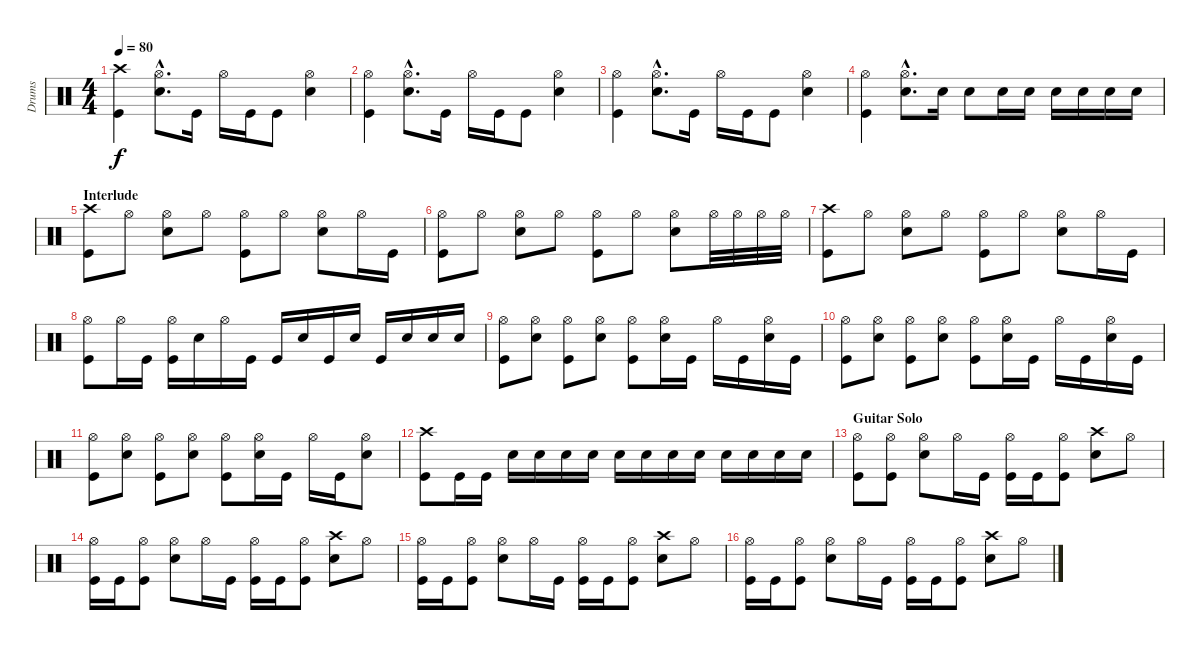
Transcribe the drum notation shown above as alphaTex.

\track ("Drums" "Drums") {instrument percussion}
\staff {score}
\articulation defaults
\ts (4 4)
\tempo 80
\clef neutral
\ks c
("Crash high (hit)" "Kick (hit)").4{dy f} ("Hi-Hat (open)"{hac} "Electric Snare (hit)"{hac}).8{d} "Kick (hit)".16 "Hi-Hat (open)".16 "Kick (hit)".16 "Kick (hit)".8 ("Hi-Hat (open)" "Electric Snare (hit)").4 |
("Hi-Hat (open)" "Kick (hit)").4 ("Hi-Hat (open)"{hac} "Electric Snare (hit)"{hac}).8{d} "Kick (hit)".16 "Hi-Hat (open)".16 "Kick (hit)".16 "Kick (hit)".8 ("Hi-Hat (open)" "Electric Snare (hit)").4 |
("Hi-Hat (open)" "Kick (hit)").4 ("Hi-Hat (open)"{hac} "Electric Snare (hit)"{hac}).8{d} "Kick (hit)".16 "Hi-Hat (open)".16 "Kick (hit)".16 "Kick (hit)".8 ("Hi-Hat (open)" "Electric Snare (hit)").4 |
("Hi-Hat (open)" "Kick (hit)").4 ("Hi-Hat (open)"{hac} "Electric Snare (hit)"{hac}).8{d} "Electric Snare (hit)".16 "Electric Snare (hit)".8 "Electric Snare (hit)".16 "Electric Snare (hit)".16 "Electric Snare (hit)".16 "Electric Snare (hit)".16 "Electric Snare (hit)".16 "Electric Snare (hit)".16 |
\section ("" "Interlude")
("Crash high (hit)" "Kick (hit)").8 "Hi-Hat (open)".8 ("Hi-Hat (open)" "Electric Snare (hit)").8 "Hi-Hat (open)".8 ("Hi-Hat (open)" "Kick (hit)").8 "Hi-Hat (open)".8 ("Hi-Hat (open)" "Electric Snare (hit)").8 "Hi-Hat (open)".16 "Kick (hit)".16 |
("Hi-Hat (open)" "Kick (hit)").8 "Hi-Hat (open)".8 ("Hi-Hat (open)" "Electric Snare (hit)").8 "Hi-Hat (open)".8 ("Hi-Hat (open)" "Kick (hit)").8 "Hi-Hat (open)".8 ("Hi-Hat (open)" "Electric Snare (hit)").8 "Hi-Hat (open)".32 "Hi-Hat (open)".32 "Hi-Hat (open)".32 "Hi-Hat (open)".32 |
("Crash high (hit)" "Kick (hit)").8 "Hi-Hat (open)".8 ("Hi-Hat (open)" "Electric Snare (hit)").8 "Hi-Hat (open)".8 ("Hi-Hat (open)" "Kick (hit)").8 "Hi-Hat (open)".8 ("Hi-Hat (open)" "Electric Snare (hit)").8 "Hi-Hat (open)".16 "Kick (hit)".16 |
("Hi-Hat (open)" "Kick (hit)").8 "Hi-Hat (open)".16 "Kick (hit)".16 ("Hi-Hat (open)" "Kick (hit)").16 "Electric Snare (hit)".16 "Hi-Hat (open)".16 "Kick (hit)".16 "Kick (hit)".16 "Electric Snare (hit)".16 "Kick (hit)".16 "Electric Snare (hit)".16 "Kick (hit)".16 "Electric Snare (hit)".16 "Electric Snare (hit)".16 "Electric Snare (hit)".16 |
("Hi-Hat (open)" "Kick (hit)").8 ("Hi-Hat (open)" "Electric Snare (hit)").8 ("Hi-Hat (open)" "Kick (hit)").8 ("Hi-Hat (open)" "Electric Snare (hit)").8 ("Hi-Hat (open)" "Kick (hit)").8 ("Hi-Hat (open)" "Electric Snare (hit)").16 "Kick (hit)".16 "Hi-Hat (open)".16 "Kick (hit)".16 ("Hi-Hat (open)" "Electric Snare (hit)").16 "Kick (hit)".16 |
("Hi-Hat (open)" "Kick (hit)").8 ("Hi-Hat (open)" "Electric Snare (hit)").8 ("Hi-Hat (open)" "Kick (hit)").8 ("Hi-Hat (open)" "Electric Snare (hit)").8 ("Hi-Hat (open)" "Kick (hit)").8 ("Hi-Hat (open)" "Electric Snare (hit)").16 "Kick (hit)".16 "Hi-Hat (open)".16 "Kick (hit)".16 ("Hi-Hat (open)" "Electric Snare (hit)").16 "Kick (hit)".16 |
("Hi-Hat (open)" "Kick (hit)").8 ("Hi-Hat (open)" "Electric Snare (hit)").8 ("Hi-Hat (open)" "Kick (hit)").8 ("Hi-Hat (open)" "Electric Snare (hit)").8 ("Hi-Hat (open)" "Kick (hit)").8 ("Hi-Hat (open)" "Electric Snare (hit)").16 "Kick (hit)".16 "Hi-Hat (open)".16 "Kick (hit)".16 ("Hi-Hat (open)" "Electric Snare (hit)").8 |
("Crash high (hit)" "Kick (hit)").8 "Kick (hit)".16 "Kick (hit)".16 "Electric Snare (hit)".16 "Electric Snare (hit)".16 "Electric Snare (hit)".16 "Electric Snare (hit)".16 "Electric Snare (hit)".16 "Electric Snare (hit)".16 "Electric Snare (hit)".16 "Electric Snare (hit)".16 "Electric Snare (hit)".16 "Electric Snare (hit)".16 "Electric Snare (hit)".16 "Electric Snare (hit)".16 |
\section ("" "Guitar Solo")
("Hi-Hat (open)" "Kick (hit)").8 ("Hi-Hat (open)" "Kick (hit)").8 ("Hi-Hat (open)" "Electric Snare (hit)").8 "Hi-Hat (open)".16 "Kick (hit)".16 ("Hi-Hat (open)" "Kick (hit)").16 "Kick (hit)".16 ("Hi-Hat (open)" "Kick (hit)").8 ("Crash high (hit)" "Electric Snare (hit)").8 "Hi-Hat (open)".8 |
("Hi-Hat (open)" "Kick (hit)").16 "Kick (hit)".16 ("Hi-Hat (open)" "Kick (hit)").8 ("Hi-Hat (open)" "Electric Snare (hit)").8 "Hi-Hat (open)".16 "Kick (hit)".16 ("Hi-Hat (open)" "Kick (hit)").16 "Kick (hit)".16 ("Hi-Hat (open)" "Kick (hit)").8 ("Crash high (hit)" "Electric Snare (hit)").8 "Hi-Hat (open)".8 |
("Hi-Hat (open)" "Kick (hit)").16 "Kick (hit)".16 ("Hi-Hat (open)" "Kick (hit)").8 ("Hi-Hat (open)" "Electric Snare (hit)").8 "Hi-Hat (open)".16 "Kick (hit)".16 ("Hi-Hat (open)" "Kick (hit)").16 "Kick (hit)".16 ("Hi-Hat (open)" "Kick (hit)").8 ("Crash high (hit)" "Electric Snare (hit)").8 "Hi-Hat (open)".8 |
("Hi-Hat (open)" "Kick (hit)").16 "Kick (hit)".16 ("Hi-Hat (open)" "Kick (hit)").8 ("Hi-Hat (open)" "Electric Snare (hit)").8 "Hi-Hat (open)".16 "Kick (hit)".16 ("Hi-Hat (open)" "Kick (hit)").16 "Kick (hit)".16 ("Hi-Hat (open)" "Kick (hit)").8 ("Crash high (hit)" "Electric Snare (hit)").8 "Hi-Hat (open)".8
